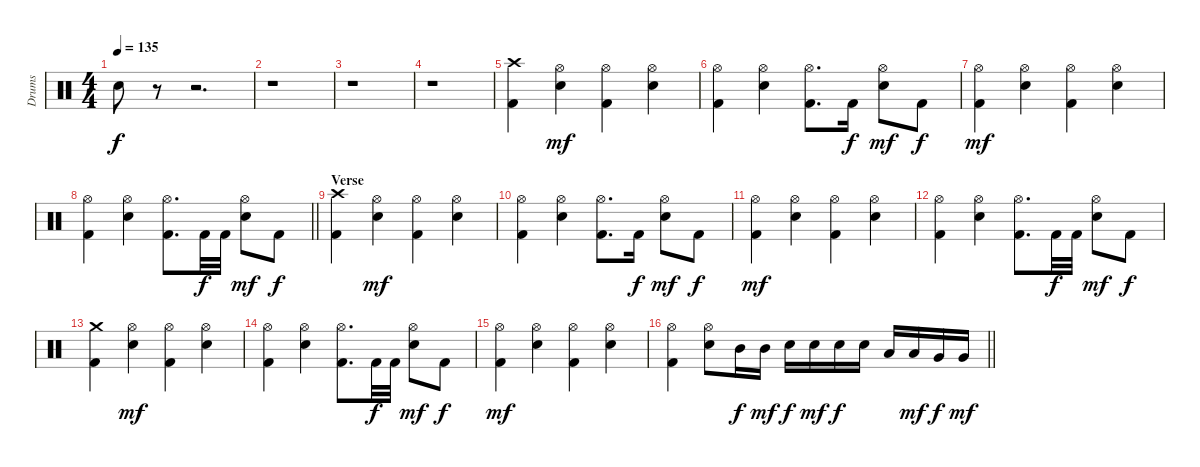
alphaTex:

\track ("Drums" "Drums") {instrument percussion}
\staff {score}
\articulation defaults
\ts (4 4)
\tempo 135
\clef neutral
\ks c "Electric Snare (hit)".8{dy f}
r.8 r.2{d} |
r.1 |
r.1 |
r.1 |
("Kick (hit) 2" "Crash high (hit)").4 ("Hi-Hat (open)" "Electric Snare (hit)").4{dy mf} ("Kick (hit) 2" "Hi-Hat (open)").4 ("Hi-Hat (open)" "Electric Snare (hit)").4 |
("Kick (hit) 2" "Hi-Hat (open)").4 ("Hi-Hat (open)" "Electric Snare (hit)").4 ("Kick (hit) 2" "Hi-Hat (open)").8{d} "Kick (hit) 2".16{dy f} ("Hi-Hat (open)" "Electric Snare (hit)").8{dy mf} "Kick (hit) 2".8{dy f} |
("Kick (hit) 2" "Hi-Hat (open)").4{dy mf} ("Hi-Hat (open)" "Electric Snare (hit)").4 ("Kick (hit) 2" "Hi-Hat (open)").4 ("Hi-Hat (open)" "Electric Snare (hit)").4 |
\barLineRight lightlight
("Kick (hit) 2" "Hi-Hat (open)").4 ("Hi-Hat (open)" "Electric Snare (hit)").4 ("Kick (hit) 2" "Hi-Hat (open)").8{d} "Kick (hit) 2".32{dy f} "Kick (hit) 2".32 ("Hi-Hat (open)" "Electric Snare (hit)").8{dy mf} "Kick (hit) 2".8{dy f} |
\section ("" "Verse")
("Kick (hit) 2" "Crash high (hit)").4 ("Hi-Hat (open)" "Electric Snare (hit)").4{dy mf} ("Kick (hit) 2" "Hi-Hat (open)").4 ("Hi-Hat (open)" "Electric Snare (hit)").4 |
("Kick (hit) 2" "Hi-Hat (open)").4 ("Hi-Hat (open)" "Electric Snare (hit)").4 ("Kick (hit) 2" "Hi-Hat (open)").8{d} "Kick (hit) 2".16{dy f} ("Hi-Hat (open)" "Electric Snare (hit)").8{dy mf} "Kick (hit) 2".8{dy f} |
("Kick (hit) 2" "Hi-Hat (open)").4{dy mf} ("Hi-Hat (open)" "Electric Snare (hit)").4 ("Kick (hit) 2" "Hi-Hat (open)").4 ("Hi-Hat (open)" "Electric Snare (hit)").4 |
("Kick (hit) 2" "Hi-Hat (open)").4 ("Hi-Hat (open)" "Electric Snare (hit)").4 ("Kick (hit) 2" "Hi-Hat (open)").8{d} "Kick (hit) 2".32{dy f} "Kick (hit) 2".32 ("Hi-Hat (open)" "Electric Snare (hit)").8{dy mf} "Kick (hit) 2".8{dy f} |
("Kick (hit) 2" "Crash medium (hit)").4 ("Hi-Hat (open)" "Electric Snare (hit)").4{dy mf} ("Kick (hit) 2" "Hi-Hat (open)").4 ("Hi-Hat (open)" "Electric Snare (hit)").4 |
("Kick (hit) 2" "Hi-Hat (open)").4 ("Hi-Hat (open)" "Electric Snare (hit)").4 ("Kick (hit) 2" "Hi-Hat (open)").8{d} "Kick (hit) 2".32{dy f} "Kick (hit) 2".32 ("Hi-Hat (open)" "Electric Snare (hit)").8{dy mf} "Kick (hit) 2".8{dy f} |
("Kick (hit) 2" "Hi-Hat (open)").4{dy mf} ("Hi-Hat (open)" "Electric Snare (hit)").4 ("Kick (hit) 2" "Hi-Hat (open)").4 ("Hi-Hat (open)" "Electric Snare (hit)").4 |
\barLineRight lightlight
("Kick (hit) 2" "Hi-Hat (open)").4 ("Hi-Hat (open)" "Electric Snare (hit)").8 "Mid Tom (hit)".16{dy f} "Mid Tom (hit)".16{dy mf} "Electric Snare (hit)".16{dy f} "Electric Snare (hit)".16{dy mf} "Electric Snare (hit)".16{dy f} "Electric Snare (hit)".16 "Low Tom (hit)".16 "Low Tom (hit)".16{dy mf} "Very Low Tom (hit)".16{dy f} "Very Low Tom (hit)".16{dy mf}
